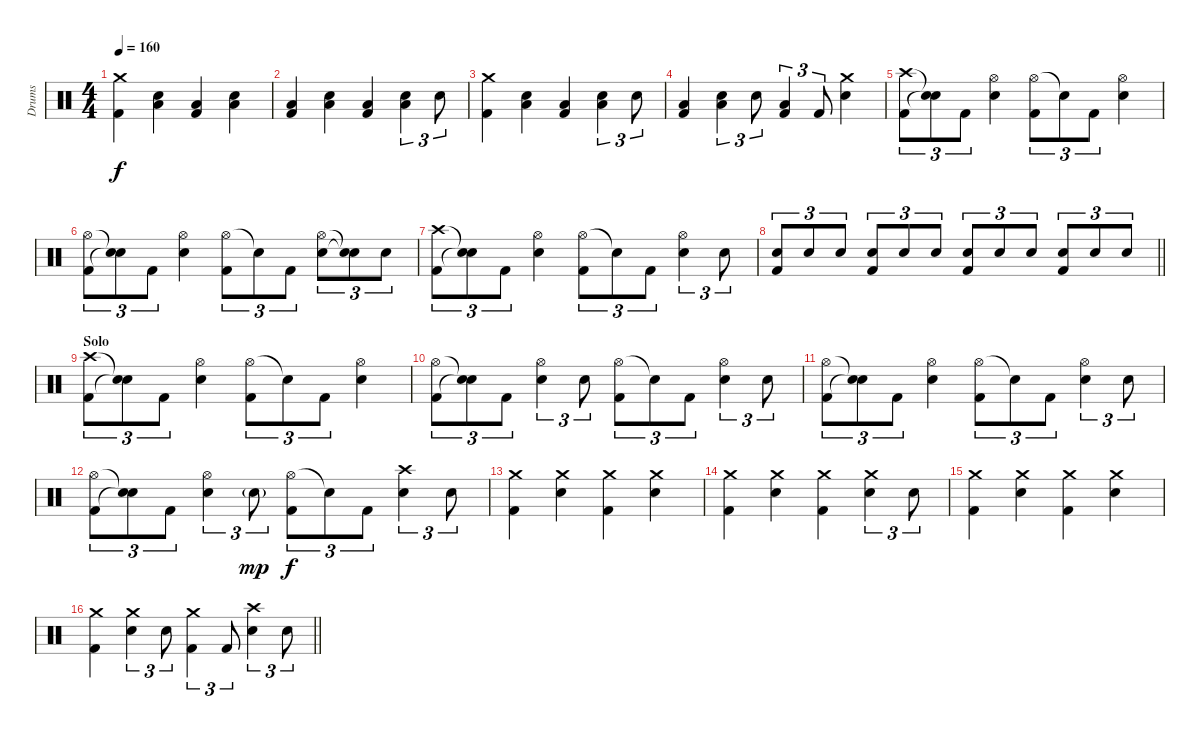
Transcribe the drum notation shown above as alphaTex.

\track ("Drums" "Drums") {instrument percussion}
\staff {score}
\articulation defaults
\ts (4 4)
\tempo 160
\clef neutral
\ks c
("Crash medium (hit)" "Kick (hit) 2").4{dy f} ("Low Floor Tom (hit)" "Electric Snare (hit)").4 ("Low Floor Tom (hit)" "Kick (hit) 2").4 ("Low Floor Tom (hit)" "Electric Snare (hit)").4 |
("Low Floor Tom (hit)" "Kick (hit) 2").4 ("Low Floor Tom (hit)" "Electric Snare (hit)").4 ("Low Floor Tom (hit)" "Kick (hit) 2").4 ("Low Floor Tom (hit)" "Electric Snare (hit)").4{tu (3 2)} "Electric Snare (hit)".8{tu (3 2)} |
("Crash medium (hit)" "Kick (hit) 2").4 ("Low Floor Tom (hit)" "Electric Snare (hit)").4 ("Low Floor Tom (hit)" "Kick (hit) 2").4 ("Low Floor Tom (hit)" "Electric Snare (hit)").4{tu (3 2)} "Electric Snare (hit)".8{tu (3 2)} |
("Low Floor Tom (hit)" "Kick (hit) 2").4 ("Low Floor Tom (hit)" "Electric Snare (hit)").4{tu (3 2)} "Electric Snare (hit)".8{tu (3 2)} ("Low Floor Tom (hit)" "Kick (hit) 2").4{tu (3 2)} "Kick (hit) 2".8{tu (3 2)} ("Crash medium (hit)" "Electric Snare (hit)").4 |
("Crash high (hit)" "Kick (hit) 2").8{tu (3 2)} ("Snare (hit)"{t} "Snare (hit)"{t}).8{tu (3 2)} "Kick (hit) 2".8{tu (3 2)} ("Hi-Hat (open)" "Electric Snare (hit)").4 ("Hi-Hat (open)" "Kick (hit) 2").8{tu (3 2)} "Snare (hit)"{t}.8{tu (3 2)} "Kick (hit) 2".8{tu (3 2)} ("Hi-Hat (open)" "Electric Snare (hit)").4 |
("Hi-Hat (open)" "Kick (hit) 2").8{tu (3 2)} ("Snare (hit)"{t} "Snare (hit)"{t}).8{tu (3 2)} "Kick (hit) 2".8{tu (3 2)} ("Hi-Hat (open)" "Electric Snare (hit)").4 ("Hi-Hat (open)" "Kick (hit) 2").8{tu (3 2)} "Snare (hit)"{t}.8{tu (3 2)} "Kick (hit) 2".8{tu (3 2)} ("Hi-Hat (open)" "Electric Snare (hit)").8{tu (3 2)} ("Snare (hit)"{t} "Snare (hit)"{t}).8{tu (3 2)} "Electric Snare (hit)".8{tu (3 2)} |
("Crash high (hit)" "Kick (hit) 2").8{tu (3 2)} ("Snare (hit)"{t} "Snare (hit)"{t}).8{tu (3 2)} "Kick (hit) 2".8{tu (3 2)} ("Hi-Hat (open)" "Electric Snare (hit)").4 ("Hi-Hat (open)" "Kick (hit) 2").8{tu (3 2)} "Snare (hit)"{t}.8{tu (3 2)} "Kick (hit) 2".8{tu (3 2)} ("Hi-Hat (open)" "Electric Snare (hit)").4{tu (3 2)} "Electric Snare (hit)".8{tu (3 2)} |
\barLineRight lightlight
("Electric Snare (hit)" "Kick (hit) 2").8{tu (3 2)} "Electric Snare (hit)".8{tu (3 2)} "Electric Snare (hit)".8{tu (3 2)} ("Electric Snare (hit)" "Kick (hit) 2").8{tu (3 2)} "Electric Snare (hit)".8{tu (3 2)} "Electric Snare (hit)".8{tu (3 2)} ("Electric Snare (hit)" "Kick (hit) 2").8{tu (3 2)} "Electric Snare (hit)".8{tu (3 2)} "Electric Snare (hit)".8{tu (3 2)} ("Electric Snare (hit)" "Kick (hit) 2").8{tu (3 2)} "Electric Snare (hit)".8{tu (3 2)} "Electric Snare (hit)".8{tu (3 2)} |
\section ("" "Solo")
("Crash high (hit)" "Kick (hit) 2").8{tu (3 2)} ("Snare (hit)"{t} "Snare (hit)"{t}).8{tu (3 2)} "Kick (hit) 2".8{tu (3 2)} ("Hi-Hat (open)" "Electric Snare (hit)").4 ("Hi-Hat (open)" "Kick (hit) 2").8{tu (3 2)} "Snare (hit)"{t}.8{tu (3 2)} "Kick (hit) 2".8{tu (3 2)} ("Hi-Hat (open)" "Electric Snare (hit)").4 |
("Hi-Hat (open)" "Kick (hit) 2").8{tu (3 2)} ("Snare (hit)"{t} "Snare (hit)"{t}).8{tu (3 2)} "Kick (hit) 2".8{tu (3 2)} ("Hi-Hat (open)" "Electric Snare (hit)").4{tu (3 2)} "Electric Snare (hit)".8{tu (3 2)} ("Hi-Hat (open)" "Kick (hit) 2").8{tu (3 2)} "Snare (hit)"{t}.8{tu (3 2)} "Kick (hit) 2".8{tu (3 2)} ("Hi-Hat (open)" "Electric Snare (hit)").4{tu (3 2)} "Electric Snare (hit)".8{tu (3 2)} |
("Hi-Hat (open)" "Kick (hit) 2").8{tu (3 2)} ("Snare (hit)"{t} "Snare (hit)"{t}).8{tu (3 2)} "Kick (hit) 2".8{tu (3 2)} ("Hi-Hat (open)" "Electric Snare (hit)").4 ("Hi-Hat (open)" "Kick (hit) 2").8{tu (3 2)} "Snare (hit)"{t}.8{tu (3 2)} "Kick (hit) 2".8{tu (3 2)} ("Hi-Hat (open)" "Electric Snare (hit)").4{tu (3 2)} "Electric Snare (hit)".8{tu (3 2)} |
("Hi-Hat (open)" "Kick (hit) 2").8{tu (3 2)} ("Snare (hit)"{t} "Snare (hit)"{t}).8{tu (3 2)} "Kick (hit) 2".8{tu (3 2)} ("Hi-Hat (open)" "Electric Snare (hit)").4{tu (3 2)} "Electric Snare (hit)"{g}.8{tu (3 2) dy mp} ("Hi-Hat (open)" "Kick (hit) 2").8{tu (3 2) dy f} "Snare (hit)"{t}.8{tu (3 2)} "Kick (hit) 2".8{tu (3 2)} ("Crash high (hit)" "Electric Snare (hit)").4{tu (3 2)} "Electric Snare (hit)".8{tu (3 2)} |
("Crash medium (hit)" "Kick (hit) 2").4 ("Crash medium (hit)" "Electric Snare (hit)").4 ("Crash medium (hit)" "Kick (hit) 2").4 ("Crash medium (hit)" "Electric Snare (hit)").4 |
("Crash medium (hit)" "Kick (hit) 2").4 ("Crash medium (hit)" "Electric Snare (hit)").4 ("Crash medium (hit)" "Kick (hit) 2").4 ("Crash medium (hit)" "Electric Snare (hit)").4{tu (3 2)} "Electric Snare (hit)".8{tu (3 2)} |
("Crash medium (hit)" "Kick (hit) 2").4 ("Crash medium (hit)" "Electric Snare (hit)").4 ("Crash medium (hit)" "Kick (hit) 2").4 ("Crash medium (hit)" "Electric Snare (hit)").4 |
\barLineRight lightlight
("Crash medium (hit)" "Kick (hit) 2").4 ("Crash medium (hit)" "Electric Snare (hit)").4{tu (3 2)} "Electric Snare (hit)".8{tu (3 2)} ("Crash medium (hit)" "Kick (hit) 2").4{tu (3 2)} "Kick (hit) 2".8{tu (3 2)} ("Crash high (hit)" "Electric Snare (hit)").4{tu (3 2)} "Electric Snare (hit)".8{tu (3 2)}
